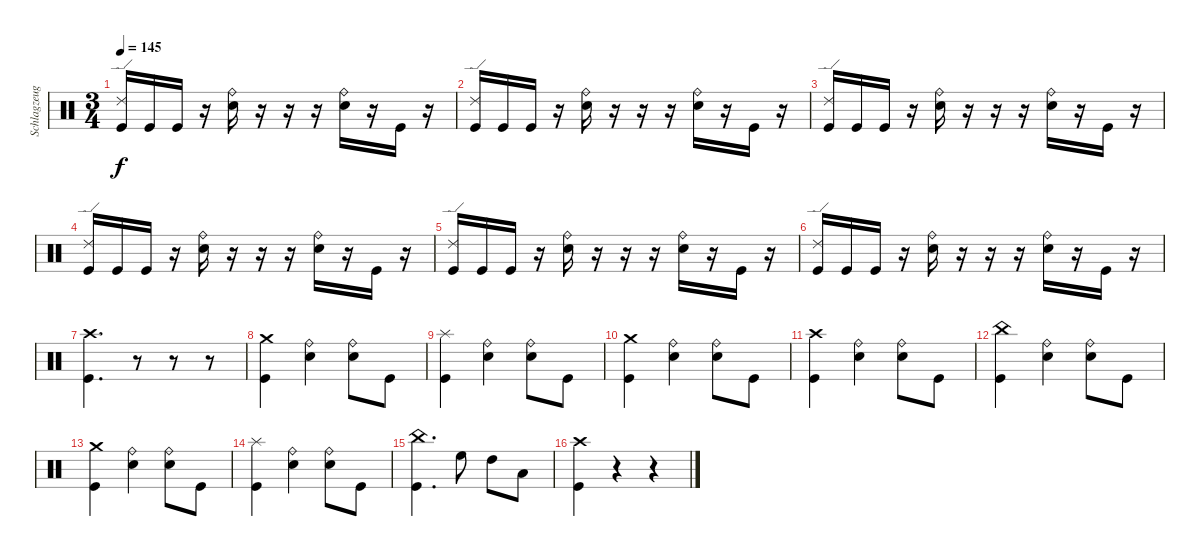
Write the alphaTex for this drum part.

\track ("Schlagzeug" "Schlagzeug") {instrument percussion}
\staff {score}
\articulation defaults
\ts (3 4)
\tempo 145
\clef neutral
\ks c
("Ride (edge) 2" "Kick (hit)").16{dy f} "Kick (hit)".16 "Kick (hit)".16 r.16 ("Ride (bell)" "Snare (hit) 2").16 r.16 r.16 r.16 ("Ride (bell)" "Snare (hit) 2").16 r.16 "Kick (hit)".16 r.16 |
("Ride (edge) 2" "Kick (hit)").16 "Kick (hit)".16 "Kick (hit)".16 r.16 ("Ride (bell)" "Snare (hit) 2").16 r.16 r.16 r.16 ("Ride (bell)" "Snare (hit) 2").16 r.16 "Kick (hit)".16 r.16 |
("Ride (edge) 2" "Kick (hit)").16 "Kick (hit)".16 "Kick (hit)".16 r.16 ("Ride (bell)" "Snare (hit) 2").16 r.16 r.16 r.16 ("Ride (bell)" "Snare (hit) 2").16 r.16 "Kick (hit)".16 r.16 |
("Ride (edge) 2" "Kick (hit)").16 "Kick (hit)".16 "Kick (hit)".16 r.16 ("Ride (bell)" "Snare (hit) 2").16 r.16 r.16 r.16 ("Ride (bell)" "Snare (hit) 2").16 r.16 "Kick (hit)".16 r.16 |
("Ride (edge) 2" "Kick (hit)").16 "Kick (hit)".16 "Kick (hit)".16 r.16 ("Ride (bell)" "Snare (hit) 2").16 r.16 r.16 r.16 ("Ride (bell)" "Snare (hit) 2").16 r.16 "Kick (hit)".16 r.16 |
("Ride (edge) 2" "Kick (hit)").16 "Kick (hit)".16 "Kick (hit)".16 r.16 ("Ride (bell)" "Snare (hit) 2").16 r.16 r.16 r.16 ("Ride (bell)" "Snare (hit) 2").16 r.16 "Kick (hit)".16 r.16 |
("Crash high (hit)" "Kick (hit)").4{d} r.8 r.8 r.8 |
("Crash medium (hit)" "Kick (hit)").4 ("Ride (bell)" "Snare (hit) 2").4 ("Ride (bell)" "Snare (hit) 2").8 "Kick (hit)".8 |
("Splash (hit)" "Kick (hit)").4 ("Ride (bell)" "Snare (hit) 2").4 ("Ride (bell)" "Snare (hit) 2").8 "Kick (hit)".8 |
("Crash medium (hit)" "Kick (hit)").4 ("Ride (bell)" "Snare (hit) 2").4 ("Ride (bell)" "Snare (hit) 2").8 "Kick (hit)".8 |
("Crash high (hit)" "Kick (hit)").4 ("Ride (bell)" "Snare (hit) 2").4 ("Ride (bell)" "Snare (hit) 2").8 "Kick (hit)".8 |
("China (hit)" "Kick (hit)").4 ("Ride (bell)" "Snare (hit) 2").4 ("Ride (bell)" "Snare (hit) 2").8 "Kick (hit)".8 |
("Crash medium (hit)" "Kick (hit)").4 ("Ride (bell)" "Snare (hit) 2").4 ("Ride (bell)" "Snare (hit) 2").8 "Kick (hit)".8 |
("Splash (hit)" "Kick (hit)").4 ("Ride (bell)" "Snare (hit) 2").4 ("Ride (bell)" "Snare (hit) 2").8 "Kick (hit)".8 |
("China (hit)" "Kick (hit)").4{d} "High Floor Tom (hit)".8 "High Tom (hit)".8 "Low Tom (hit)".8 |
("Crash high (hit)" "Kick (hit)").4 r.4 r.4
